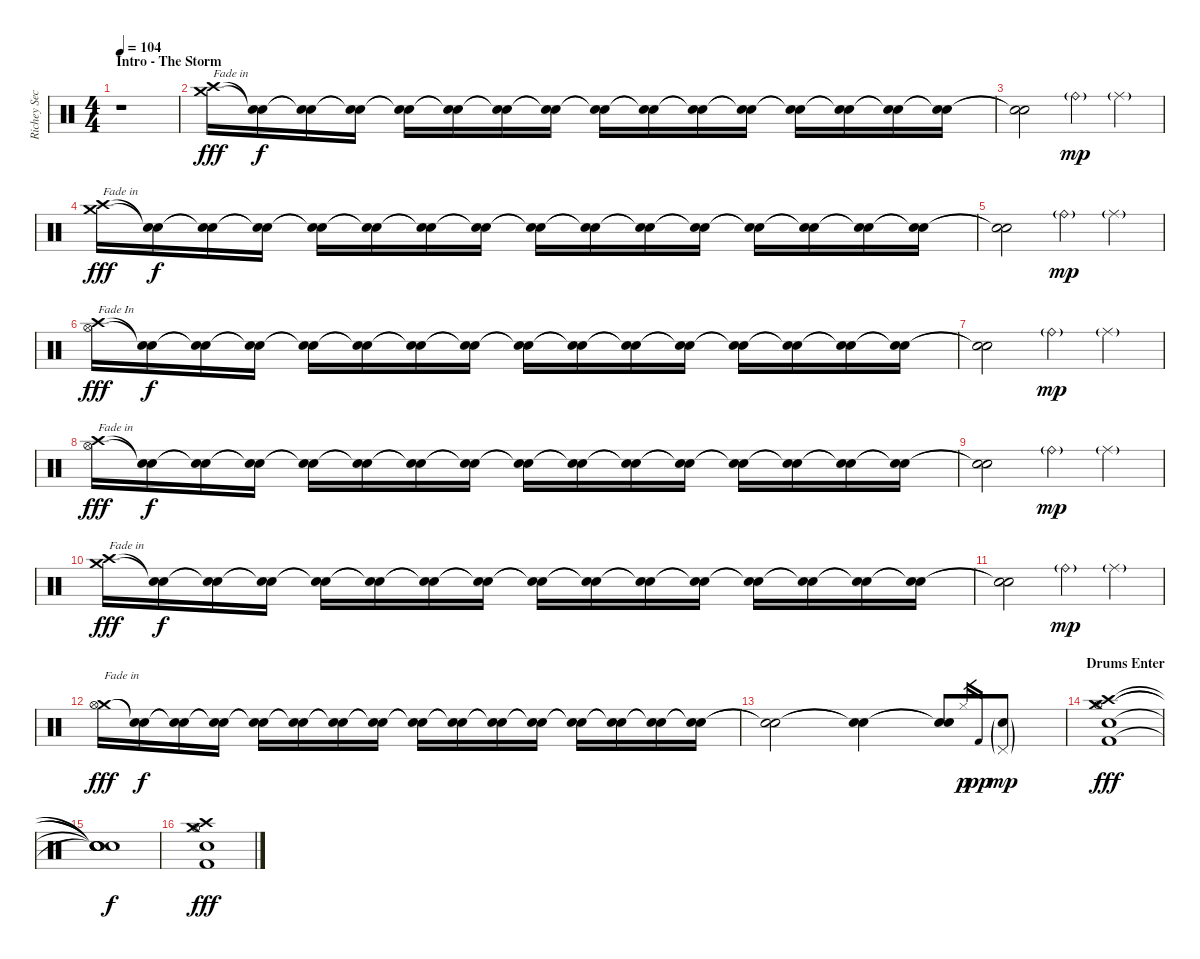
\track ("Richey Secchiri" "Richey Sec") {instrument percussion}
\staff {score}
\articulation defaults
\ts (4 4)
\section ("" "Intro - The Storm")
\tempo 104
\tempo 114
\tempo 104
\clef neutral
\ks c
r.1{dy fff} |
("Crash medium (hit)" "Crash high (hit)").16{txt "Fade in" volume 4} ("Snare (hit)"{t} "Snare (hit)"{t}).16{dy f} ("Snare (hit)"{t} "Snare (hit)"{t}).16{volume 5} ("Snare (hit)"{t} "Snare (hit)"{t}).16 ("Snare (hit)"{t} "Snare (hit)"{t}).16{volume 6} ("Snare (hit)"{t} "Snare (hit)"{t}).16 ("Snare (hit)"{t} "Snare (hit)"{t}).16{volume 5} ("Snare (hit)"{t} "Snare (hit)"{t}).16 ("Snare (hit)"{t} "Snare (hit)"{t}).16{volume 7} ("Snare (hit)"{t} "Snare (hit)"{t}).16 ("Snare (hit)"{t} "Snare (hit)"{t}).16{volume 8} ("Snare (hit)"{t} "Snare (hit)"{t}).16 ("Snare (hit)"{t} "Snare (hit)"{t}).16{volume 9} ("Snare (hit)"{t} "Snare (hit)"{t}).16 ("Snare (hit)"{t} "Snare (hit)"{t}).16{volume 11} ("Snare (hit)"{t} "Snare (hit)"{t}).16 |
("Snare (hit)"{t} "Snare (hit)"{t}).2{volume 13} "Ride (bell)"{g}.4{dy mp} "Ride (middle)"{g}.4 |
("Crash medium (hit)" "Crash high (hit)").16{txt "Fade in" dy fff volume 4} ("Snare (hit)"{t} "Snare (hit)"{t}).16{dy f} ("Snare (hit)"{t} "Snare (hit)"{t}).16{volume 5} ("Snare (hit)"{t} "Snare (hit)"{t}).16 ("Snare (hit)"{t} "Snare (hit)"{t}).16{volume 6} ("Snare (hit)"{t} "Snare (hit)"{t}).16 ("Snare (hit)"{t} "Snare (hit)"{t}).16{volume 5} ("Snare (hit)"{t} "Snare (hit)"{t}).16 ("Snare (hit)"{t} "Snare (hit)"{t}).16{volume 7} ("Snare (hit)"{t} "Snare (hit)"{t}).16 ("Snare (hit)"{t} "Snare (hit)"{t}).16{volume 8} ("Snare (hit)"{t} "Snare (hit)"{t}).16 ("Snare (hit)"{t} "Snare (hit)"{t}).16{volume 9} ("Snare (hit)"{t} "Snare (hit)"{t}).16 ("Snare (hit)"{t} "Snare (hit)"{t}).16{volume 11} ("Snare (hit)"{t} "Snare (hit)"{t}).16 |
("Snare (hit)"{t} "Snare (hit)"{t}).2 "Ride (bell)"{g}.4{dy mp} "Ride (middle)"{g}.4 |
("Crash high (hit)" "Hi-Hat (open)").16{txt "Fade In " dy fff volume 4} ("Snare (hit)"{t} "Snare (hit)"{t}).16{dy f} ("Snare (hit)"{t} "Snare (hit)"{t}).16{volume 5} ("Snare (hit)"{t} "Snare (hit)"{t}).16 ("Snare (hit)"{t} "Snare (hit)"{t}).16{volume 6} ("Snare (hit)"{t} "Snare (hit)"{t}).16 ("Snare (hit)"{t} "Snare (hit)"{t}).16{volume 5} ("Snare (hit)"{t} "Snare (hit)"{t}).16 ("Snare (hit)"{t} "Snare (hit)"{t}).16{volume 7} ("Snare (hit)"{t} "Snare (hit)"{t}).16 ("Snare (hit)"{t} "Snare (hit)"{t}).16{volume 8} ("Snare (hit)"{t} "Snare (hit)"{t}).16 ("Snare (hit)"{t} "Snare (hit)"{t}).16{volume 9} ("Snare (hit)"{t} "Snare (hit)"{t}).16 ("Snare (hit)"{t} "Snare (hit)"{t}).16{volume 11} ("Snare (hit)"{t} "Snare (hit)"{t}).16 |
("Snare (hit)"{t} "Snare (hit)"{t}).2 "Ride (bell)"{g}.4{dy mp} "Ride (middle)"{g}.4 |
("Crash high (hit)" "Hi-Hat (open)").16{txt "Fade in " dy fff volume 4} ("Snare (hit)"{t} "Snare (hit)"{t}).16{dy f} ("Snare (hit)"{t} "Snare (hit)"{t}).16{volume 5} ("Snare (hit)"{t} "Snare (hit)"{t}).16 ("Snare (hit)"{t} "Snare (hit)"{t}).16{volume 6} ("Snare (hit)"{t} "Snare (hit)"{t}).16 ("Snare (hit)"{t} "Snare (hit)"{t}).16{volume 5} ("Snare (hit)"{t} "Snare (hit)"{t}).16 ("Snare (hit)"{t} "Snare (hit)"{t}).16{volume 7} ("Snare (hit)"{t} "Snare (hit)"{t}).16 ("Snare (hit)"{t} "Snare (hit)"{t}).16{volume 8} ("Snare (hit)"{t} "Snare (hit)"{t}).16 ("Snare (hit)"{t} "Snare (hit)"{t}).16{volume 9} ("Snare (hit)"{t} "Snare (hit)"{t}).16 ("Snare (hit)"{t} "Snare (hit)"{t}).16{volume 11} ("Snare (hit)"{t} "Snare (hit)"{t}).16 |
("Snare (hit)"{t} "Snare (hit)"{t}).2 "Ride (bell)"{g}.4{dy mp} "Ride (middle)"{g}.4 |
("Crash medium (hit)" "Crash high (hit)").16{txt "Fade in " dy fff volume 4} ("Snare (hit)"{t} "Snare (hit)"{t}).16{dy f} ("Snare (hit)"{t} "Snare (hit)"{t}).16{volume 5} ("Snare (hit)"{t} "Snare (hit)"{t}).16 ("Snare (hit)"{t} "Snare (hit)"{t}).16{volume 6} ("Snare (hit)"{t} "Snare (hit)"{t}).16 ("Snare (hit)"{t} "Snare (hit)"{t}).16{volume 5} ("Snare (hit)"{t} "Snare (hit)"{t}).16 ("Snare (hit)"{t} "Snare (hit)"{t}).16{volume 7} ("Snare (hit)"{t} "Snare (hit)"{t}).16 ("Snare (hit)"{t} "Snare (hit)"{t}).16{volume 8} ("Snare (hit)"{t} "Snare (hit)"{t}).16 ("Snare (hit)"{t} "Snare (hit)"{t}).16{volume 9} ("Snare (hit)"{t} "Snare (hit)"{t}).16 ("Snare (hit)"{t} "Snare (hit)"{t}).16{volume 11} ("Snare (hit)"{t} "Snare (hit)"{t}).16 |
("Snare (hit)"{t} "Snare (hit)"{t}).2 "Ride (bell)"{g}.4{dy mp} "Ride (middle)"{g}.4 |
("Crash medium (hit)" "Hi-Hat (open)").16{txt "Fade in" dy fff volume 4} ("Snare (hit)"{t} "Snare (hit)"{t}).16{dy f} ("Snare (hit)"{t} "Snare (hit)"{t}).16{volume 5} ("Snare (hit)"{t} "Snare (hit)"{t}).16 ("Snare (hit)"{t} "Snare (hit)"{t}).16{volume 6} ("Snare (hit)"{t} "Snare (hit)"{t}).16 ("Snare (hit)"{t} "Snare (hit)"{t}).16{volume 5} ("Snare (hit)"{t} "Snare (hit)"{t}).16 ("Snare (hit)"{t} "Snare (hit)"{t}).16{volume 7} ("Snare (hit)"{t} "Snare (hit)"{t}).16 ("Snare (hit)"{t} "Snare (hit)"{t}).16{volume 8} ("Snare (hit)"{t} "Snare (hit)"{t}).16 ("Snare (hit)"{t} "Snare (hit)"{t}).16{volume 9} ("Snare (hit)"{t} "Snare (hit)"{t}).16 ("Snare (hit)"{t} "Snare (hit)"{t}).16{volume 11} ("Snare (hit)"{t} "Snare (hit)"{t}).16 |
("Snare (hit)"{t} "Snare (hit)"{t}).2 ("Snare (hit)"{t} "Snare (hit)"{t}).4 ("Snare (hit)"{t} "Snare (hit)"{t}).8 "Hi-Hat (closed)".16{gr dy p} "Kick (hit) 2".16{gr dy pp} ("Pedal Hi-Hat (hit)"{g} "Snare (hit) 2"{g}).8{dy mp} |
\section ("" "Drums Enter")
("Crash high (hit)" "Hi-Hat (open)" "Crash medium (hit)" "Snare (hit) 2" "Kick (hit) 2").1{dy fff} |
("Snare (hit)"{t} "Snare (hit)"{t} "Snare (hit)"{t} "Snare (hit)"{t} "Snare (hit)"{t}).1{dy f} |
("Hi-Hat (open)" "Crash high (hit)" "Crash medium (hit)" "Snare (hit) 2" "Kick (hit) 2").1{bd 30 dy fff}
